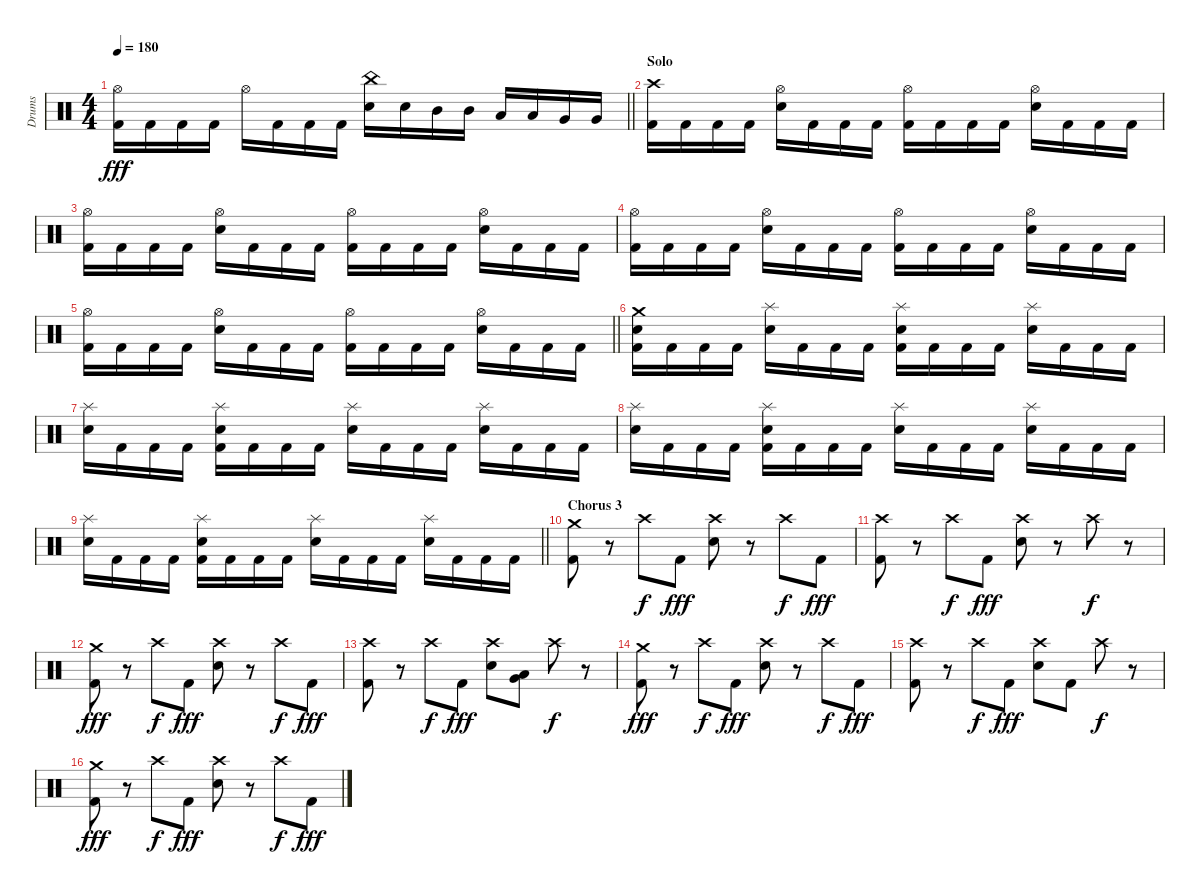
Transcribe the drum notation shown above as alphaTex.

\track ("Drums" "Drums") {instrument percussion}
\staff {score}
\articulation defaults
\ts (4 4)
\tempo 180
\clef neutral
\barLineRight lightlight
\ks c
("Hi-Hat (open)" "Kick (hit) 2").16{dy fff} "Kick (hit) 2".16 "Kick (hit) 2".16 "Kick (hit) 2".16 "Hi-Hat (open)".16 "Kick (hit) 2".16 "Kick (hit) 2".16 "Kick (hit) 2".16 ("China (hit)" "Electric Snare (hit)").16 "Electric Snare (hit)".16 "Mid Tom (hit)".16 "Mid Tom (hit)".16 "Low Tom (hit)".16 "Low Tom (hit)".16 "Very Low Tom (hit)".16 "Very Low Tom (hit)".16 |
\section ("" "Solo")
("Crash high (hit)" "Kick (hit) 2").16 "Kick (hit) 2".16 "Kick (hit) 2".16 "Kick (hit) 2".16 ("Hi-Hat (open)" "Electric Snare (hit)").16 "Kick (hit) 2".16 "Kick (hit) 2".16 "Kick (hit) 2".16 ("Hi-Hat (open)" "Kick (hit) 2").16 "Kick (hit) 2".16 "Kick (hit) 2".16 "Kick (hit) 2".16 ("Hi-Hat (open)" "Electric Snare (hit)").16 "Kick (hit) 2".16 "Kick (hit) 2".16 "Kick (hit) 2".16 |
("Hi-Hat (open)" "Kick (hit) 2").16 "Kick (hit) 2".16 "Kick (hit) 2".16 "Kick (hit) 2".16 ("Hi-Hat (open)" "Electric Snare (hit)").16 "Kick (hit) 2".16 "Kick (hit) 2".16 "Kick (hit) 2".16 ("Hi-Hat (open)" "Kick (hit) 2").16 "Kick (hit) 2".16 "Kick (hit) 2".16 "Kick (hit) 2".16 ("Hi-Hat (open)" "Electric Snare (hit)").16 "Kick (hit) 2".16 "Kick (hit) 2".16 "Kick (hit) 2".16 |
("Hi-Hat (open)" "Kick (hit) 2").16 "Kick (hit) 2".16 "Kick (hit) 2".16 "Kick (hit) 2".16 ("Hi-Hat (open)" "Electric Snare (hit)").16 "Kick (hit) 2".16 "Kick (hit) 2".16 "Kick (hit) 2".16 ("Hi-Hat (open)" "Kick (hit) 2").16 "Kick (hit) 2".16 "Kick (hit) 2".16 "Kick (hit) 2".16 ("Hi-Hat (open)" "Electric Snare (hit)").16 "Kick (hit) 2".16 "Kick (hit) 2".16 "Kick (hit) 2".16 |
\barLineRight lightlight
("Hi-Hat (open)" "Kick (hit) 2").16 "Kick (hit) 2".16 "Kick (hit) 2".16 "Kick (hit) 2".16 ("Hi-Hat (open)" "Electric Snare (hit)").16 "Kick (hit) 2".16 "Kick (hit) 2".16 "Kick (hit) 2".16 ("Hi-Hat (open)" "Kick (hit) 2").16 "Kick (hit) 2".16 "Kick (hit) 2".16 "Kick (hit) 2".16 ("Hi-Hat (open)" "Electric Snare (hit)").16 "Kick (hit) 2".16 "Kick (hit) 2".16 "Kick (hit) 2".16 |
("Crash medium (hit)" "Electric Snare (hit)" "Kick (hit) 2").16 "Kick (hit) 2".16 "Kick (hit) 2".16 "Kick (hit) 2".16 ("Splash (hit)" "Electric Snare (hit)").16 "Kick (hit) 2".16 "Kick (hit) 2".16 "Kick (hit) 2".16 ("Splash (hit)" "Electric Snare (hit)" "Kick (hit) 2").16 "Kick (hit) 2".16 "Kick (hit) 2".16 "Kick (hit) 2".16 ("Splash (hit)" "Electric Snare (hit)").16 "Kick (hit) 2".16 "Kick (hit) 2".16 "Kick (hit) 2".16 |
("Splash (hit)" "Electric Snare (hit)").16 "Kick (hit) 2".16 "Kick (hit) 2".16 "Kick (hit) 2".16 ("Splash (hit)" "Electric Snare (hit)" "Kick (hit) 2").16 "Kick (hit) 2".16 "Kick (hit) 2".16 "Kick (hit) 2".16 ("Splash (hit)" "Electric Snare (hit)").16 "Kick (hit) 2".16 "Kick (hit) 2".16 "Kick (hit) 2".16 ("Splash (hit)" "Electric Snare (hit)").16 "Kick (hit) 2".16 "Kick (hit) 2".16 "Kick (hit) 2".16 |
("Splash (hit)" "Electric Snare (hit)").16 "Kick (hit) 2".16 "Kick (hit) 2".16 "Kick (hit) 2".16 ("Splash (hit)" "Electric Snare (hit)" "Kick (hit) 2").16 "Kick (hit) 2".16 "Kick (hit) 2".16 "Kick (hit) 2".16 ("Splash (hit)" "Electric Snare (hit)").16 "Kick (hit) 2".16 "Kick (hit) 2".16 "Kick (hit) 2".16 ("Splash (hit)" "Electric Snare (hit)").16 "Kick (hit) 2".16 "Kick (hit) 2".16 "Kick (hit) 2".16 |
\barLineRight lightlight
("Splash (hit)" "Electric Snare (hit)").16 "Kick (hit) 2".16 "Kick (hit) 2".16 "Kick (hit) 2".16 ("Splash (hit)" "Electric Snare (hit)" "Kick (hit) 2").16 "Kick (hit) 2".16 "Kick (hit) 2".16 "Kick (hit) 2".16 ("Splash (hit)" "Electric Snare (hit)").16 "Kick (hit) 2".16 "Kick (hit) 2".16 "Kick (hit) 2".16 ("Splash (hit)" "Electric Snare (hit)").16 "Kick (hit) 2".16 "Kick (hit) 2".16 "Kick (hit) 2".16 |
\section ("" "Chorus 3")
("Crash medium (hit)" "Kick (hit) 2").8 r.8 "Crash high (hit)".8{dy f} "Kick (hit) 2".8{dy fff} ("Crash high (hit)" "Electric Snare (hit)").8 r.8 "Crash high (hit)".8{dy f} "Kick (hit) 2".8{dy fff} |
("Crash high (hit)" "Kick (hit) 2").8 r.8 "Crash high (hit)".8{dy f} "Kick (hit) 2".8{dy fff} ("Crash high (hit)" "Electric Snare (hit)").8 r.8 "Crash high (hit)".8{dy f} r.8 |
("Crash medium (hit)" "Kick (hit) 2").8{dy fff} r.8 "Crash high (hit)".8{dy f} "Kick (hit) 2".8{dy fff} ("Crash high (hit)" "Electric Snare (hit)").8 r.8 "Crash high (hit)".8{dy f} "Kick (hit) 2".8{dy fff} |
("Crash high (hit)" "Kick (hit) 2").8 r.8 "Crash high (hit)".8{dy f} "Kick (hit) 2".8{dy fff} ("Crash high (hit)" "Electric Snare (hit)").8 ("Low Tom (hit)" "Very Low Tom (hit)").8 "Crash high (hit)".8{dy f} r.8 |
("Crash medium (hit)" "Kick (hit) 2").8{dy fff} r.8 "Crash high (hit)".8{dy f} "Kick (hit) 2".8{dy fff} ("Crash high (hit)" "Electric Snare (hit)").8 r.8 "Crash high (hit)".8{dy f} "Kick (hit) 2".8{dy fff} |
("Crash high (hit)" "Kick (hit) 2").8 r.8 "Crash high (hit)".8{dy f} "Kick (hit) 2".8{dy fff} ("Crash high (hit)" "Electric Snare (hit)").8 "Kick (hit) 2".8 "Crash high (hit)".8{dy f} r.8 |
("Crash medium (hit)" "Kick (hit) 2").8{dy fff} r.8 "Crash high (hit)".8{dy f} "Kick (hit) 2".8{dy fff} ("Crash high (hit)" "Electric Snare (hit)").8 r.8 "Crash high (hit)".8{dy f} "Kick (hit) 2".8{dy fff}
